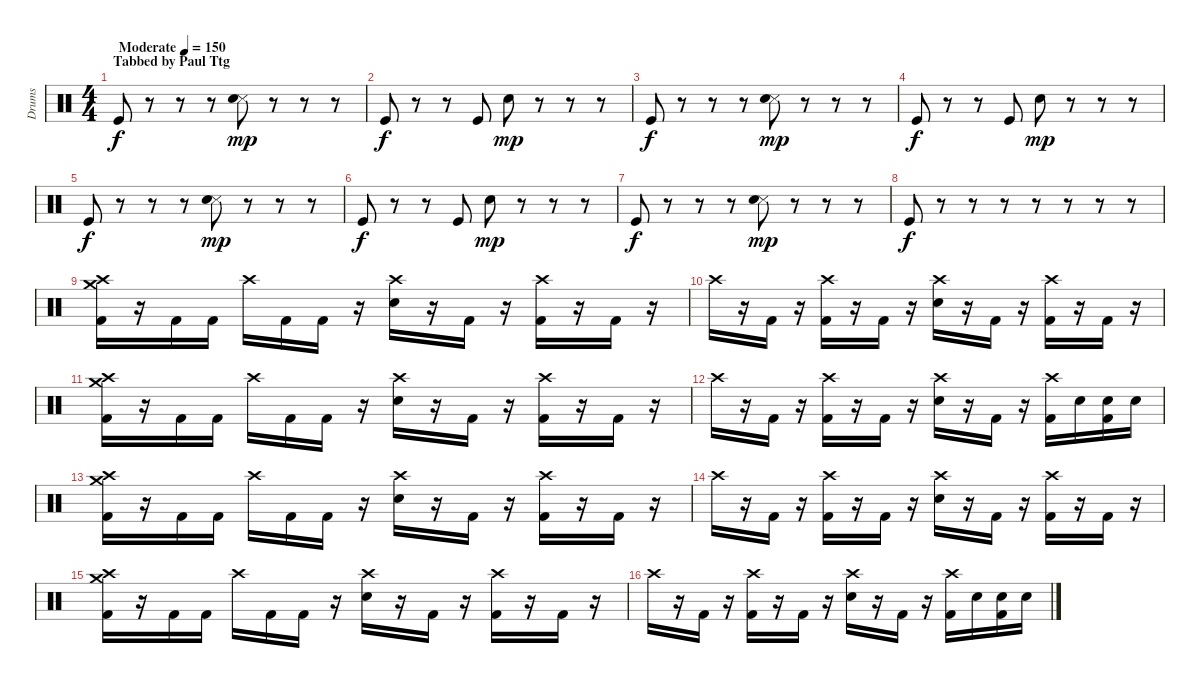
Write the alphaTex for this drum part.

\track ("Drums" "Drums") {instrument percussion}
\staff {score}
\articulation defaults
\ts (4 4)
\section ("" "Tabbed by Paul Ttg")
\tempo (150 "Moderate")
\clef neutral
\ks c "Kick (hit)".8{dy f}
r.8 r.8 r.8 ("Snare (side stick) 3" "Snare (hit) 2").8{dy mp} r.8 r.8 r.8 |
"Kick (hit)".8{dy f} r.8 r.8 "Kick (hit)".8 "Snare (hit) 2".8{dy mp} r.8 r.8 r.8 |
"Kick (hit)".8{dy f} r.8 r.8 r.8 ("Snare (side stick) 3" "Snare (hit) 2").8{dy mp} r.8 r.8 r.8 |
"Kick (hit)".8{dy f} r.8 r.8 "Kick (hit)".8 "Snare (hit) 2".8{dy mp} r.8 r.8 r.8 |
"Kick (hit)".8{dy f} r.8 r.8 r.8 ("Snare (side stick) 3" "Snare (hit) 2").8{dy mp} r.8 r.8 r.8 |
"Kick (hit)".8{dy f} r.8 r.8 "Kick (hit)".8 "Snare (hit) 2".8{dy mp} r.8 r.8 r.8 |
"Kick (hit)".8{dy f} r.8 r.8 r.8 ("Snare (side stick) 3" "Snare (hit) 2").8{dy mp} r.8 r.8 r.8 |
"Kick (hit)".8{dy f} r.8 r.8 r.8 r.8 r.8 r.8 r.8 |
("Crash medium (hit)" "Crash high (hit)" "Kick (hit) 2").16 r.16 "Kick (hit) 2".16 "Kick (hit) 2".16 "Crash high (hit)".16 "Kick (hit) 2".16 "Kick (hit) 2".16 r.16 ("Crash high (hit)" "Electric Snare (hit)").16 r.16 "Kick (hit) 2".16 r.16 ("Crash high (hit)" "Kick (hit) 2").16 r.16 "Kick (hit) 2".16 r.16 |
"Crash high (hit)".16 r.16 "Kick (hit) 2".16 r.16 ("Crash high (hit)" "Kick (hit) 2").16 r.16 "Kick (hit) 2".16 r.16 ("Crash high (hit)" "Electric Snare (hit)").16 r.16 "Kick (hit) 2".16 r.16 ("Crash high (hit)" "Kick (hit) 2").16 r.16 "Kick (hit) 2".16 r.16 |
("Crash medium (hit)" "Crash high (hit)" "Kick (hit) 2").16 r.16 "Kick (hit) 2".16 "Kick (hit) 2".16 "Crash high (hit)".16 "Kick (hit) 2".16 "Kick (hit) 2".16 r.16 ("Crash high (hit)" "Electric Snare (hit)").16 r.16 "Kick (hit) 2".16 r.16 ("Crash high (hit)" "Kick (hit) 2").16 r.16 "Kick (hit) 2".16 r.16 |
"Crash high (hit)".16 r.16 "Kick (hit) 2".16 r.16 ("Crash high (hit)" "Kick (hit) 2").16 r.16 "Kick (hit) 2".16 r.16 ("Crash high (hit)" "Electric Snare (hit)").16 r.16 "Kick (hit) 2".16 r.16 ("Crash high (hit)" "Kick (hit) 2").16 "Electric Snare (hit)".16 ("Electric Snare (hit)" "Kick (hit) 2").16 "Electric Snare (hit)".16 |
("Crash medium (hit)" "Crash high (hit)" "Kick (hit) 2").16 r.16 "Kick (hit) 2".16 "Kick (hit) 2".16 "Crash high (hit)".16 "Kick (hit) 2".16 "Kick (hit) 2".16 r.16 ("Crash high (hit)" "Electric Snare (hit)").16 r.16 "Kick (hit) 2".16 r.16 ("Crash high (hit)" "Kick (hit) 2").16 r.16 "Kick (hit) 2".16 r.16 |
"Crash high (hit)".16 r.16 "Kick (hit) 2".16 r.16 ("Crash high (hit)" "Kick (hit) 2").16 r.16 "Kick (hit) 2".16 r.16 ("Crash high (hit)" "Electric Snare (hit)").16 r.16 "Kick (hit) 2".16 r.16 ("Crash high (hit)" "Kick (hit) 2").16 r.16 "Kick (hit) 2".16 r.16 |
("Crash medium (hit)" "Crash high (hit)" "Kick (hit) 2").16 r.16 "Kick (hit) 2".16 "Kick (hit) 2".16 "Crash high (hit)".16 "Kick (hit) 2".16 "Kick (hit) 2".16 r.16 ("Crash high (hit)" "Electric Snare (hit)").16 r.16 "Kick (hit) 2".16 r.16 ("Crash high (hit)" "Kick (hit) 2").16 r.16 "Kick (hit) 2".16 r.16 |
"Crash high (hit)".16 r.16 "Kick (hit) 2".16 r.16 ("Crash high (hit)" "Kick (hit) 2").16 r.16 "Kick (hit) 2".16 r.16 ("Crash high (hit)" "Electric Snare (hit)").16 r.16 "Kick (hit) 2".16 r.16 ("Crash high (hit)" "Kick (hit) 2").16 "Electric Snare (hit)".16 ("Electric Snare (hit)" "Kick (hit) 2").16 "Electric Snare (hit)".16
